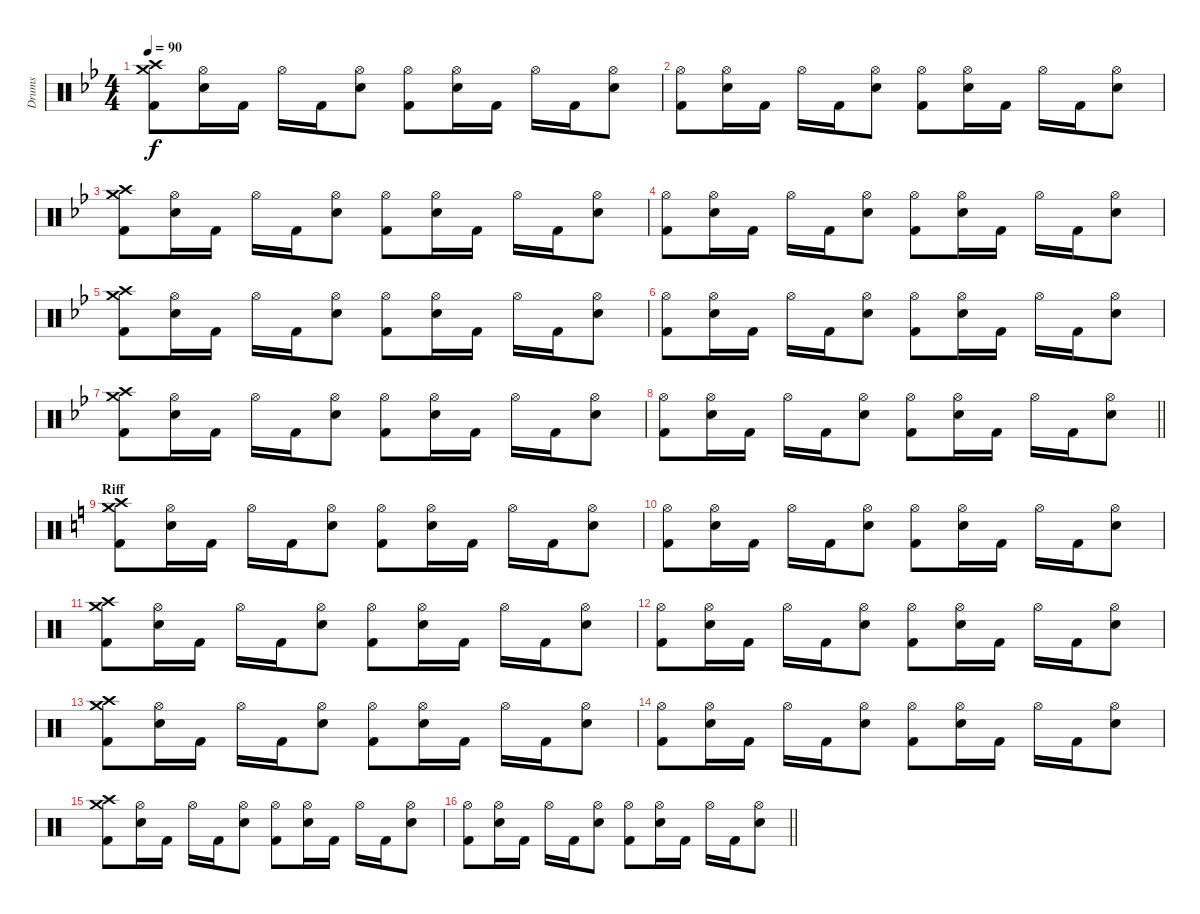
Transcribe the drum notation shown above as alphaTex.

\track ("Drums" "Drums") {instrument percussion}
\staff {score}
\articulation defaults
\ts (4 4)
\tempo 90
\clef neutral
\ks gminor
("Kick (hit) 2" "Crash medium (hit)" "Crash high (hit)").8{dy f} ("Snare (hit) 2" "Hi-Hat (open)").16 "Kick (hit) 2".16 "Hi-Hat (open)".16 "Kick (hit) 2".16 ("Snare (hit) 2" "Hi-Hat (open)").8 ("Kick (hit) 2" "Hi-Hat (open)").8 ("Snare (hit) 2" "Hi-Hat (open)").16 "Kick (hit) 2".16 "Hi-Hat (open)".16 "Kick (hit) 2".16 ("Snare (hit) 2" "Hi-Hat (open)").8 |
("Kick (hit) 2" "Hi-Hat (open)").8 ("Snare (hit) 2" "Hi-Hat (open)").16 "Kick (hit) 2".16 "Hi-Hat (open)".16 "Kick (hit) 2".16 ("Snare (hit) 2" "Hi-Hat (open)").8 ("Kick (hit) 2" "Hi-Hat (open)").8 ("Snare (hit) 2" "Hi-Hat (open)").16 "Kick (hit) 2".16 "Hi-Hat (open)".16 "Kick (hit) 2".16 ("Snare (hit) 2" "Hi-Hat (open)").8 |
("Kick (hit) 2" "Crash medium (hit)" "Crash high (hit)").8 ("Snare (hit) 2" "Hi-Hat (open)").16 "Kick (hit) 2".16 "Hi-Hat (open)".16 "Kick (hit) 2".16 ("Snare (hit) 2" "Hi-Hat (open)").8 ("Kick (hit) 2" "Hi-Hat (open)").8 ("Snare (hit) 2" "Hi-Hat (open)").16 "Kick (hit) 2".16 "Hi-Hat (open)".16 "Kick (hit) 2".16 ("Snare (hit) 2" "Hi-Hat (open)").8 |
("Kick (hit) 2" "Hi-Hat (open)").8 ("Snare (hit) 2" "Hi-Hat (open)").16 "Kick (hit) 2".16 "Hi-Hat (open)".16 "Kick (hit) 2".16 ("Snare (hit) 2" "Hi-Hat (open)").8 ("Kick (hit) 2" "Hi-Hat (open)").8 ("Snare (hit) 2" "Hi-Hat (open)").16 "Kick (hit) 2".16 "Hi-Hat (open)".16 "Kick (hit) 2".16 ("Snare (hit) 2" "Hi-Hat (open)").8 |
("Kick (hit) 2" "Crash medium (hit)" "Crash high (hit)").8 ("Snare (hit) 2" "Hi-Hat (open)").16 "Kick (hit) 2".16 "Hi-Hat (open)".16 "Kick (hit) 2".16 ("Snare (hit) 2" "Hi-Hat (open)").8 ("Kick (hit) 2" "Hi-Hat (open)").8 ("Snare (hit) 2" "Hi-Hat (open)").16 "Kick (hit) 2".16 "Hi-Hat (open)".16 "Kick (hit) 2".16 ("Snare (hit) 2" "Hi-Hat (open)").8 |
("Kick (hit) 2" "Hi-Hat (open)").8 ("Snare (hit) 2" "Hi-Hat (open)").16 "Kick (hit) 2".16 "Hi-Hat (open)".16 "Kick (hit) 2".16 ("Snare (hit) 2" "Hi-Hat (open)").8 ("Kick (hit) 2" "Hi-Hat (open)").8 ("Snare (hit) 2" "Hi-Hat (open)").16 "Kick (hit) 2".16 "Hi-Hat (open)".16 "Kick (hit) 2".16 ("Snare (hit) 2" "Hi-Hat (open)").8 |
("Kick (hit) 2" "Crash medium (hit)" "Crash high (hit)").8 ("Snare (hit) 2" "Hi-Hat (open)").16 "Kick (hit) 2".16 "Hi-Hat (open)".16 "Kick (hit) 2".16 ("Snare (hit) 2" "Hi-Hat (open)").8 ("Kick (hit) 2" "Hi-Hat (open)").8 ("Snare (hit) 2" "Hi-Hat (open)").16 "Kick (hit) 2".16 "Hi-Hat (open)".16 "Kick (hit) 2".16 ("Snare (hit) 2" "Hi-Hat (open)").8 |
\barLineRight lightlight
("Kick (hit) 2" "Hi-Hat (open)").8 ("Snare (hit) 2" "Hi-Hat (open)").16 "Kick (hit) 2".16 "Hi-Hat (open)".16 "Kick (hit) 2".16 ("Snare (hit) 2" "Hi-Hat (open)").8 ("Kick (hit) 2" "Hi-Hat (open)").8 ("Snare (hit) 2" "Hi-Hat (open)").16 "Kick (hit) 2".16 "Hi-Hat (open)".16 "Kick (hit) 2".16 ("Snare (hit) 2" "Hi-Hat (open)").8 |
\section ("" "Riff")
\ks c
("Kick (hit) 2" "Crash medium (hit)" "Crash high (hit)").8 ("Snare (hit) 2" "Hi-Hat (open)").16 "Kick (hit) 2".16 "Hi-Hat (open)".16 "Kick (hit) 2".16 ("Snare (hit) 2" "Hi-Hat (open)").8 ("Kick (hit) 2" "Hi-Hat (open)").8 ("Snare (hit) 2" "Hi-Hat (open)").16 "Kick (hit) 2".16 "Hi-Hat (open)".16 "Kick (hit) 2".16 ("Snare (hit) 2" "Hi-Hat (open)").8 |
("Kick (hit) 2" "Hi-Hat (open)").8 ("Snare (hit) 2" "Hi-Hat (open)").16 "Kick (hit) 2".16 "Hi-Hat (open)".16 "Kick (hit) 2".16 ("Snare (hit) 2" "Hi-Hat (open)").8 ("Kick (hit) 2" "Hi-Hat (open)").8 ("Snare (hit) 2" "Hi-Hat (open)").16 "Kick (hit) 2".16 "Hi-Hat (open)".16 "Kick (hit) 2".16 ("Snare (hit) 2" "Hi-Hat (open)").8 |
("Kick (hit) 2" "Crash medium (hit)" "Crash high (hit)").8 ("Snare (hit) 2" "Hi-Hat (open)").16 "Kick (hit) 2".16 "Hi-Hat (open)".16 "Kick (hit) 2".16 ("Snare (hit) 2" "Hi-Hat (open)").8 ("Kick (hit) 2" "Hi-Hat (open)").8 ("Snare (hit) 2" "Hi-Hat (open)").16 "Kick (hit) 2".16 "Hi-Hat (open)".16 "Kick (hit) 2".16 ("Snare (hit) 2" "Hi-Hat (open)").8 |
("Kick (hit) 2" "Hi-Hat (open)").8 ("Snare (hit) 2" "Hi-Hat (open)").16 "Kick (hit) 2".16 "Hi-Hat (open)".16 "Kick (hit) 2".16 ("Snare (hit) 2" "Hi-Hat (open)").8 ("Kick (hit) 2" "Hi-Hat (open)").8 ("Snare (hit) 2" "Hi-Hat (open)").16 "Kick (hit) 2".16 "Hi-Hat (open)".16 "Kick (hit) 2".16 ("Snare (hit) 2" "Hi-Hat (open)").8 |
("Kick (hit) 2" "Crash medium (hit)" "Crash high (hit)").8 ("Snare (hit) 2" "Hi-Hat (open)").16 "Kick (hit) 2".16 "Hi-Hat (open)".16 "Kick (hit) 2".16 ("Snare (hit) 2" "Hi-Hat (open)").8 ("Kick (hit) 2" "Hi-Hat (open)").8 ("Snare (hit) 2" "Hi-Hat (open)").16 "Kick (hit) 2".16 "Hi-Hat (open)".16 "Kick (hit) 2".16 ("Snare (hit) 2" "Hi-Hat (open)").8 |
("Kick (hit) 2" "Hi-Hat (open)").8 ("Snare (hit) 2" "Hi-Hat (open)").16 "Kick (hit) 2".16 "Hi-Hat (open)".16 "Kick (hit) 2".16 ("Snare (hit) 2" "Hi-Hat (open)").8 ("Kick (hit) 2" "Hi-Hat (open)").8 ("Snare (hit) 2" "Hi-Hat (open)").16 "Kick (hit) 2".16 "Hi-Hat (open)".16 "Kick (hit) 2".16 ("Snare (hit) 2" "Hi-Hat (open)").8 |
("Kick (hit) 2" "Crash medium (hit)" "Crash high (hit)").8 ("Snare (hit) 2" "Hi-Hat (open)").16 "Kick (hit) 2".16 "Hi-Hat (open)".16 "Kick (hit) 2".16 ("Snare (hit) 2" "Hi-Hat (open)").8 ("Kick (hit) 2" "Hi-Hat (open)").8 ("Snare (hit) 2" "Hi-Hat (open)").16 "Kick (hit) 2".16 "Hi-Hat (open)".16 "Kick (hit) 2".16 ("Snare (hit) 2" "Hi-Hat (open)").8 |
\barLineRight lightlight
("Kick (hit) 2" "Hi-Hat (open)").8 ("Snare (hit) 2" "Hi-Hat (open)").16 "Kick (hit) 2".16 "Hi-Hat (open)".16 "Kick (hit) 2".16 ("Snare (hit) 2" "Hi-Hat (open)").8 ("Kick (hit) 2" "Hi-Hat (open)").8 ("Snare (hit) 2" "Hi-Hat (open)").16 "Kick (hit) 2".16 "Hi-Hat (open)".16 "Kick (hit) 2".16 ("Snare (hit) 2" "Hi-Hat (open)").8
